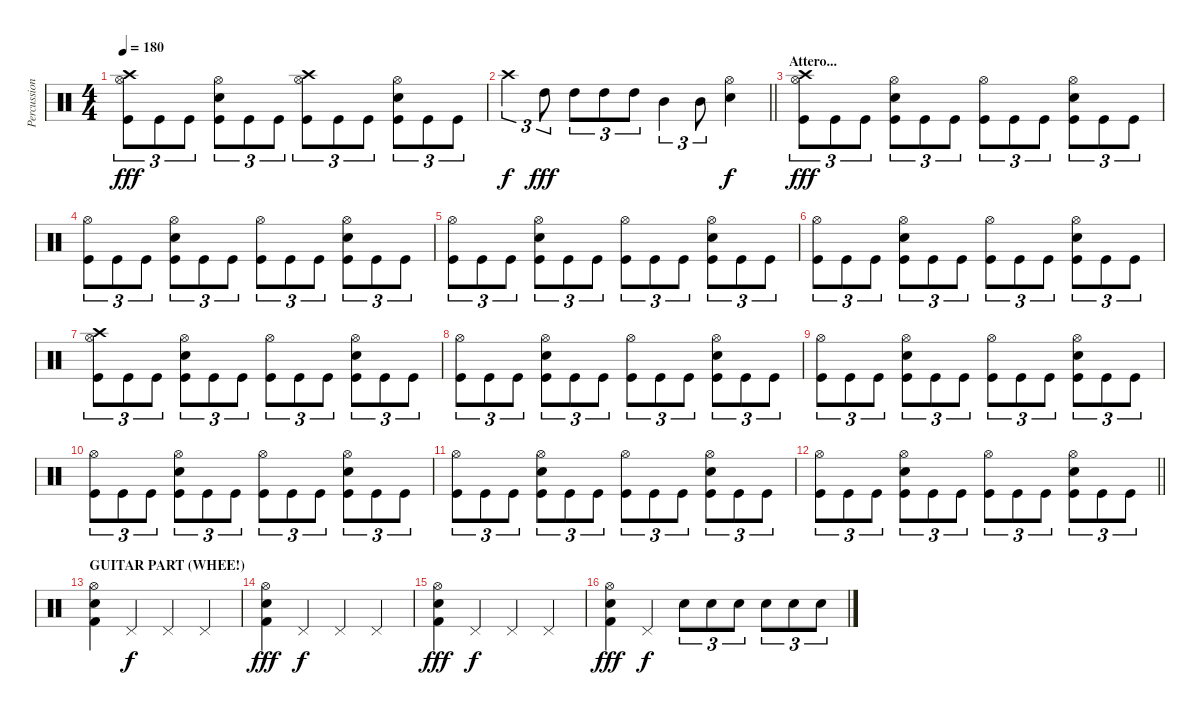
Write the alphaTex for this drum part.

\track ("Percussion" "Percussion") {instrument percussion}
\staff {score}
\articulation defaults
\ts (4 4)
\tempo 180
\clef neutral
\ks c
("Crash high (hit)" "Hi-Hat (open)" "Kick (hit)").8{tu (3 2) dy fff} "Kick (hit)".8{tu (3 2)} "Kick (hit)".8{tu (3 2)} ("Hi-Hat (open)" "Electric Snare (hit)" "Kick (hit)").8{tu (3 2)} "Kick (hit)".8{tu (3 2)} "Kick (hit)".8{tu (3 2)} ("Crash high (hit)" "Hi-Hat (open)" "Kick (hit)").8{tu (3 2)} "Kick (hit)".8{tu (3 2)} "Kick (hit)".8{tu (3 2)} ("Hi-Hat (open)" "Electric Snare (hit)" "Kick (hit)").8{tu (3 2)} "Kick (hit)".8{tu (3 2)} "Kick (hit)".8{tu (3 2)} |
\barLineRight lightlight "Crash high (hit)".4{tu (3 2) dy f} "High Tom (hit)".8{tu (3 2) dy fff} "High Tom (hit)".8{tu (3 2)} "High Tom (hit)".8{tu (3 2)} "High Tom (hit)".8{tu (3 2)} "Mid Tom (hit)".4{tu (3 2)} "Mid Tom (hit)".8{tu (3 2)}
("Hi-Hat (open)" "Electric Snare (hit)").4{dy f} |
\section ("" "Attero...")
("Crash high (hit)" "Hi-Hat (open)" "Kick (hit)").8{tu (3 2) dy fff} "Kick (hit)".8{tu (3 2)} "Kick (hit)".8{tu (3 2)} ("Hi-Hat (open)" "Electric Snare (hit)" "Kick (hit)").8{tu (3 2)} "Kick (hit)".8{tu (3 2)} "Kick (hit)".8{tu (3 2)} ("Hi-Hat (open)" "Kick (hit)").8{tu (3 2)} "Kick (hit)".8{tu (3 2)} "Kick (hit)".8{tu (3 2)} ("Hi-Hat (open)" "Electric Snare (hit)" "Kick (hit)").8{tu (3 2)} "Kick (hit)".8{tu (3 2)} "Kick (hit)".8{tu (3 2)} |
("Hi-Hat (open)" "Kick (hit)").8{tu (3 2)} "Kick (hit)".8{tu (3 2)} "Kick (hit)".8{tu (3 2)} ("Hi-Hat (open)" "Electric Snare (hit)" "Kick (hit)").8{tu (3 2)} "Kick (hit)".8{tu (3 2)} "Kick (hit)".8{tu (3 2)} ("Hi-Hat (open)" "Kick (hit)").8{tu (3 2)} "Kick (hit)".8{tu (3 2)} "Kick (hit)".8{tu (3 2)} ("Hi-Hat (open)" "Electric Snare (hit)" "Kick (hit)").8{tu (3 2)} "Kick (hit)".8{tu (3 2)} "Kick (hit)".8{tu (3 2)} |
("Hi-Hat (open)" "Kick (hit)").8{tu (3 2)} "Kick (hit)".8{tu (3 2)} "Kick (hit)".8{tu (3 2)} ("Hi-Hat (open)" "Electric Snare (hit)" "Kick (hit)").8{tu (3 2)} "Kick (hit)".8{tu (3 2)} "Kick (hit)".8{tu (3 2)} ("Hi-Hat (open)" "Kick (hit)").8{tu (3 2)} "Kick (hit)".8{tu (3 2)} "Kick (hit)".8{tu (3 2)} ("Hi-Hat (open)" "Electric Snare (hit)" "Kick (hit)").8{tu (3 2)} "Kick (hit)".8{tu (3 2)} "Kick (hit)".8{tu (3 2)} |
("Hi-Hat (open)" "Kick (hit)").8{tu (3 2)} "Kick (hit)".8{tu (3 2)} "Kick (hit)".8{tu (3 2)} ("Hi-Hat (open)" "Electric Snare (hit)" "Kick (hit)").8{tu (3 2)} "Kick (hit)".8{tu (3 2)} "Kick (hit)".8{tu (3 2)} ("Hi-Hat (open)" "Kick (hit)").8{tu (3 2)} "Kick (hit)".8{tu (3 2)} "Kick (hit)".8{tu (3 2)} ("Hi-Hat (open)" "Electric Snare (hit)" "Kick (hit)").8{tu (3 2)} "Kick (hit)".8{tu (3 2)} "Kick (hit)".8{tu (3 2)} |
("Crash high (hit)" "Hi-Hat (open)" "Kick (hit)").8{tu (3 2)} "Kick (hit)".8{tu (3 2)} "Kick (hit)".8{tu (3 2)} ("Hi-Hat (open)" "Electric Snare (hit)" "Kick (hit)").8{tu (3 2)} "Kick (hit)".8{tu (3 2)} "Kick (hit)".8{tu (3 2)} ("Hi-Hat (open)" "Kick (hit)").8{tu (3 2)} "Kick (hit)".8{tu (3 2)} "Kick (hit)".8{tu (3 2)} ("Hi-Hat (open)" "Electric Snare (hit)" "Kick (hit)").8{tu (3 2)} "Kick (hit)".8{tu (3 2)} "Kick (hit)".8{tu (3 2)} |
("Hi-Hat (open)" "Kick (hit)").8{tu (3 2)} "Kick (hit)".8{tu (3 2)} "Kick (hit)".8{tu (3 2)} ("Hi-Hat (open)" "Electric Snare (hit)" "Kick (hit)").8{tu (3 2)} "Kick (hit)".8{tu (3 2)} "Kick (hit)".8{tu (3 2)} ("Hi-Hat (open)" "Kick (hit)").8{tu (3 2)} "Kick (hit)".8{tu (3 2)} "Kick (hit)".8{tu (3 2)} ("Hi-Hat (open)" "Electric Snare (hit)" "Kick (hit)").8{tu (3 2)} "Kick (hit)".8{tu (3 2)} "Kick (hit)".8{tu (3 2)} |
("Hi-Hat (open)" "Kick (hit)").8{tu (3 2)} "Kick (hit)".8{tu (3 2)} "Kick (hit)".8{tu (3 2)} ("Hi-Hat (open)" "Electric Snare (hit)" "Kick (hit)").8{tu (3 2)} "Kick (hit)".8{tu (3 2)} "Kick (hit)".8{tu (3 2)} ("Hi-Hat (open)" "Kick (hit)").8{tu (3 2)} "Kick (hit)".8{tu (3 2)} "Kick (hit)".8{tu (3 2)} ("Hi-Hat (open)" "Electric Snare (hit)" "Kick (hit)").8{tu (3 2)} "Kick (hit)".8{tu (3 2)} "Kick (hit)".8{tu (3 2)} |
("Hi-Hat (open)" "Kick (hit)").8{tu (3 2)} "Kick (hit)".8{tu (3 2)} "Kick (hit)".8{tu (3 2)} ("Hi-Hat (open)" "Electric Snare (hit)" "Kick (hit)").8{tu (3 2)} "Kick (hit)".8{tu (3 2)} "Kick (hit)".8{tu (3 2)} ("Hi-Hat (open)" "Kick (hit)").8{tu (3 2)} "Kick (hit)".8{tu (3 2)} "Kick (hit)".8{tu (3 2)} ("Hi-Hat (open)" "Electric Snare (hit)" "Kick (hit)").8{tu (3 2)} "Kick (hit)".8{tu (3 2)} "Kick (hit)".8{tu (3 2)} |
("Hi-Hat (open)" "Kick (hit)").8{tu (3 2)} "Kick (hit)".8{tu (3 2)} "Kick (hit)".8{tu (3 2)} ("Hi-Hat (open)" "Electric Snare (hit)" "Kick (hit)").8{tu (3 2)} "Kick (hit)".8{tu (3 2)} "Kick (hit)".8{tu (3 2)} ("Hi-Hat (open)" "Kick (hit)").8{tu (3 2)} "Kick (hit)".8{tu (3 2)} "Kick (hit)".8{tu (3 2)} ("Hi-Hat (open)" "Electric Snare (hit)" "Kick (hit)").8{tu (3 2)} "Kick (hit)".8{tu (3 2)} "Kick (hit)".8{tu (3 2)} |
\barLineRight lightlight
("Hi-Hat (open)" "Kick (hit)").8{tu (3 2)} "Kick (hit)".8{tu (3 2)} "Kick (hit)".8{tu (3 2)} ("Hi-Hat (open)" "Electric Snare (hit)" "Kick (hit)").8{tu (3 2)} "Kick (hit)".8{tu (3 2)} "Kick (hit)".8{tu (3 2)} ("Hi-Hat (open)" "Kick (hit)").8{tu (3 2)} "Kick (hit)".8{tu (3 2)} "Kick (hit)".8{tu (3 2)} ("Hi-Hat (open)" "Electric Snare (hit)" "Kick (hit)").8{tu (3 2)} "Kick (hit)".8{tu (3 2)} "Kick (hit)".8{tu (3 2)} |
\section ("" "GUITAR PART (WHEE!)")
("Hi-Hat (open)" "Electric Snare (hit)" "Kick (hit) 2").4 "Pedal Hi-Hat (hit)".4{dy f} "Pedal Hi-Hat (hit)".4 "Pedal Hi-Hat (hit)".4 |
("Hi-Hat (open)" "Electric Snare (hit)" "Kick (hit) 2").4{dy fff} "Pedal Hi-Hat (hit)".4{dy f} "Pedal Hi-Hat (hit)".4 "Pedal Hi-Hat (hit)".4 |
("Hi-Hat (open)" "Electric Snare (hit)" "Kick (hit) 2").4{dy fff} "Pedal Hi-Hat (hit)".4{dy f} "Pedal Hi-Hat (hit)".4 "Pedal Hi-Hat (hit)".4 |
("Hi-Hat (open)" "Electric Snare (hit)" "Kick (hit) 2").4{dy fff} "Pedal Hi-Hat (hit)".4{dy f} "Electric Snare (hit)".8{tu (3 2)} "Electric Snare (hit)".8{tu (3 2)} "Electric Snare (hit)".8{tu (3 2)} "Electric Snare (hit)".8{tu (3 2)} "Electric Snare (hit)".8{tu (3 2)} "Electric Snare (hit)".8{tu (3 2)}
